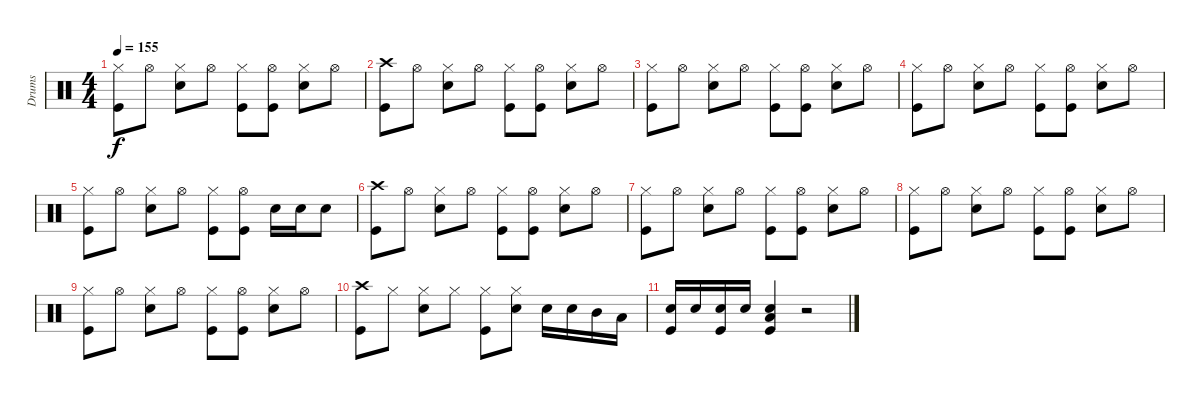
\track ("Drums" "Drums") {instrument percussion}
\staff {score}
\articulation defaults
\ts (4 4)
\tempo 155
\clef neutral
\ks c
("Hi-Hat (closed)" "Kick (hit)").8{dy f} "Hi-Hat (open)".8 ("Hi-Hat (closed)" "Snare (hit) 2").8 "Hi-Hat (open)".8 ("Hi-Hat (closed)" "Kick (hit)").8 ("Hi-Hat (open)" "Kick (hit)").8 ("Hi-Hat (closed)" "Snare (hit) 2").8 "Hi-Hat (open)".8 |
("Crash high (hit)" "Kick (hit)").8 "Hi-Hat (open)".8 ("Hi-Hat (closed)" "Snare (hit) 2").8 "Hi-Hat (open)".8 ("Hi-Hat (closed)" "Kick (hit)").8 ("Hi-Hat (open)" "Kick (hit)").8 ("Hi-Hat (closed)" "Snare (hit) 2").8 "Hi-Hat (open)".8 |
("Hi-Hat (closed)" "Kick (hit)").8 "Hi-Hat (open)".8 ("Hi-Hat (closed)" "Snare (hit) 2").8 "Hi-Hat (open)".8 ("Hi-Hat (closed)" "Kick (hit)").8 ("Hi-Hat (open)" "Kick (hit)").8 ("Hi-Hat (closed)" "Snare (hit) 2").8 "Hi-Hat (open)".8 |
("Hi-Hat (closed)" "Kick (hit)").8 "Hi-Hat (open)".8 ("Hi-Hat (closed)" "Snare (hit) 2").8 "Hi-Hat (open)".8 ("Hi-Hat (closed)" "Kick (hit)").8 ("Hi-Hat (open)" "Kick (hit)").8 ("Hi-Hat (closed)" "Snare (hit) 2").8 "Hi-Hat (open)".8 |
("Hi-Hat (closed)" "Kick (hit)").8 "Hi-Hat (open)".8 ("Hi-Hat (closed)" "Snare (hit) 2").8 "Hi-Hat (open)".8 ("Hi-Hat (closed)" "Kick (hit)").8 ("Hi-Hat (open)" "Kick (hit)").8 "Snare (hit) 2".16 "Snare (hit) 2".16 "Snare (hit) 2".8 |
("Crash high (hit)" "Kick (hit)").8 "Hi-Hat (open)".8 ("Hi-Hat (closed)" "Snare (hit) 2").8 "Hi-Hat (open)".8 ("Hi-Hat (closed)" "Kick (hit)").8 ("Hi-Hat (open)" "Kick (hit)").8 ("Hi-Hat (closed)" "Snare (hit) 2").8 "Hi-Hat (open)".8 |
("Hi-Hat (closed)" "Kick (hit)").8 "Hi-Hat (open)".8 ("Hi-Hat (closed)" "Snare (hit) 2").8 "Hi-Hat (open)".8 ("Hi-Hat (closed)" "Kick (hit)").8 ("Hi-Hat (open)" "Kick (hit)").8 ("Hi-Hat (closed)" "Snare (hit) 2").8 "Hi-Hat (open)".8 |
("Hi-Hat (closed)" "Kick (hit)").8 "Hi-Hat (open)".8 ("Hi-Hat (closed)" "Snare (hit) 2").8 "Hi-Hat (open)".8 ("Hi-Hat (closed)" "Kick (hit)").8 ("Hi-Hat (open)" "Kick (hit)").8 ("Hi-Hat (closed)" "Snare (hit) 2").8 "Hi-Hat (open)".8 |
("Hi-Hat (closed)" "Kick (hit)").8 "Hi-Hat (open)".8 ("Hi-Hat (closed)" "Snare (hit) 2").8 "Hi-Hat (open)".8 ("Hi-Hat (closed)" "Kick (hit)").8 ("Hi-Hat (open)" "Kick (hit)").8 ("Hi-Hat (closed)" "Snare (hit) 2").8 "Hi-Hat (open)".8 |
("Crash high (hit)" "Kick (hit)").8 "Hi-Hat (closed)".8 ("Hi-Hat (closed)" "Snare (hit) 2").8 "Hi-Hat (closed)".8 ("Hi-Hat (closed)" "Kick (hit)").8 ("Hi-Hat (closed)" "Snare (hit) 2").8 "Snare (hit) 2".16 "Snare (hit) 2".16 "Mid Tom (hit)".16 "Low Tom (hit)".16 |
("Snare (hit) 2" "Kick (hit)").16 "Snare (hit) 2".16 ("Snare (hit) 2" "Kick (hit)").16 "Snare (hit) 2".16 ("Low Floor Tom (hit)" "Snare (hit) 2" "Kick (hit)").4 r.2
